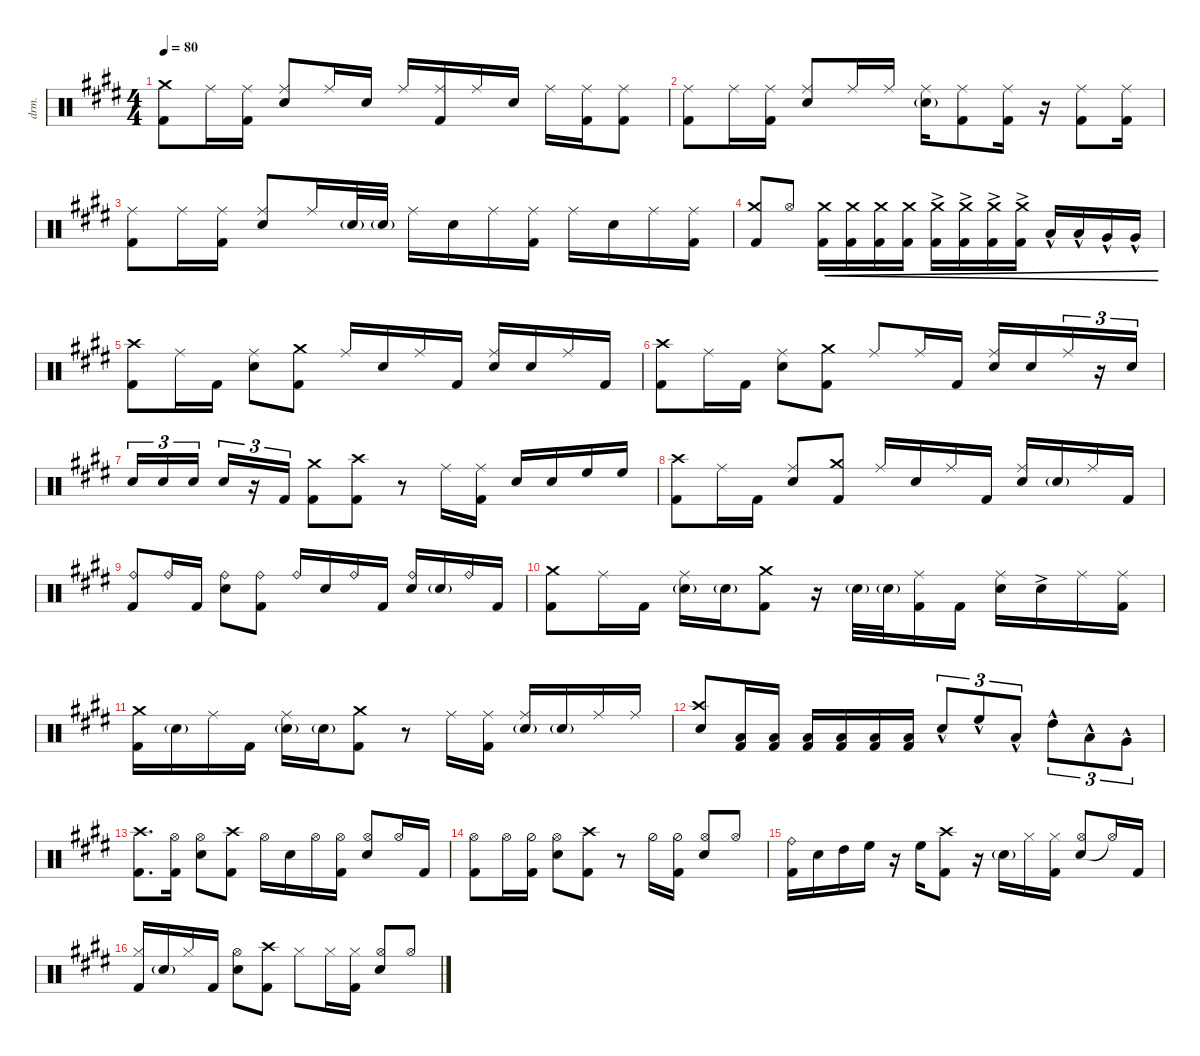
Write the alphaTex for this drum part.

\defaultSystemsLayout 4
\hideDynamics
\bracketExtendMode groupsimilarinstruments
\otherSystemsTrackNameOrientation horizontal
\chordDiagramsInScore
\track ("Drumkit" "drm.") {instrument percussion}
\staff {score}
\articulation defaults
\ts (4 4)
\tempo 80
\clef neutral
\ks e
("Crash medium (hit)"{acc forcenatural} "Kick (hit) 2"{acc forcenatural}).8{dy mf} "Ride (middle)"{acc forcenatural}.16 ("Ride (middle)"{acc forcenatural} "Kick (hit) 2"{acc forcenatural}).16 ("Ride (middle)"{acc forcenatural} "Snare (hit) 2"{acc forcenatural}).8{beam Up} "Ride (middle)"{acc forcenatural}.16{beam Up} "Snare (hit) 2"{acc forcenatural}.16{beam Up} "Ride (middle)"{acc forcenatural}.16{beam Up} ("Ride (middle)"{acc forcenatural} "Kick (hit) 2"{acc forcenatural}).16{beam Up} "Ride (middle)"{acc forcenatural}.16{beam Up} "Snare (hit) 2"{acc forcenatural}.16{beam Up} "Ride (middle)"{acc forcenatural}.16 ("Ride (middle)"{acc forcenatural} "Kick (hit) 2"{acc forcenatural}).16 ("Kick (hit) 2"{acc forcenatural} "Ride (middle)"{acc forcenatural}).8 |
("Ride (middle)"{acc forcenatural} "Kick (hit) 2"{acc forcenatural}).8 "Ride (middle)"{acc forcenatural}.16 ("Ride (middle)"{acc forcenatural} "Kick (hit) 2"{acc forcenatural}).16 ("Ride (middle)"{acc forcenatural} "Snare (hit) 2"{acc forcenatural}).8{beam Up} "Ride (middle)"{acc forcenatural}.16{beam Up} "Ride (middle)"{acc forcenatural}.16{beam Up} ("Ride (middle)"{acc forcenatural} "Snare (hit) 2"{g acc forcenatural}).16 ("Ride (middle)"{acc forcenatural} "Kick (hit) 2"{acc forcenatural}).8 ("Ride (middle)"{acc forcenatural} "Kick (hit) 2"{acc forcenatural}).16 r.16 ("Ride (middle)"{acc forcenatural} "Kick (hit) 2"{acc forcenatural}).8 ("Ride (middle)"{acc forcenatural} "Kick (hit) 2"{acc forcenatural}).16 |
\scale
1.05899 ("Ride (middle)"{acc forcenatural} "Kick (hit) 2"{acc forcenatural}).8 "Ride (middle)"{acc forcenatural}.16 ("Ride (middle)"{acc forcenatural} "Kick (hit) 2"{acc forcenatural}).16 ("Ride (middle)"{acc forcenatural} "Snare (hit) 2"{acc forcenatural}).8{beam Up} "Ride (middle)"{acc forcenatural}.16{beam Up} "Snare (hit) 2"{g acc forcenatural}.32{beam Up} "Snare (hit) 2"{g acc forcenatural}.32{beam Up} "Ride (middle)"{acc forcenatural}.16 "Snare (hit) 2"{acc forcenatural}.16 "Ride (middle)"{acc forcenatural}.16 ("Ride (middle)"{acc forcenatural} "Kick (hit) 2"{acc forcenatural}).16 "Ride (middle)"{acc forcenatural}.16 "Snare (hit) 2"{acc forcenatural}.16 "Ride (middle)"{acc forcenatural}.16 ("Kick (hit) 2"{acc forcenatural} "Ride (middle)"{acc forcenatural}).16 |
\scale
0.941009 ("Crash medium (hit)"{acc forcenatural} "Kick (hit) 2"{acc forcenatural}).8{beam Up} "Hi-Hat (open)"{acc forcenatural}.8{beam Up} ("Crash medium (hit)"{acc forcenatural} "Kick (hit) 2"{acc forcenatural}).16{cre} ("Crash medium (hit)"{acc forcenatural} "Kick (hit) 2"{acc forcenatural}).16{cre} ("Crash medium (hit)"{acc forcenatural} "Kick (hit) 2"{acc forcenatural}).16{cre} ("Crash medium (hit)"{acc forcenatural} "Kick (hit) 2"{acc forcenatural}).16{cre} ("Crash medium (hit)"{ac acc forcenatural} "Kick (hit) 2"{ac acc forcenatural}).16{cre} ("Crash medium (hit)"{ac acc forcenatural} "Kick (hit) 2"{ac acc forcenatural}).16{cre} ("Crash medium (hit)"{ac acc forcenatural} "Kick (hit) 2"{ac acc forcenatural}).16{cre} ("Crash medium (hit)"{ac acc forcenatural} "Kick (hit) 2"{ac acc forcenatural}).16{cre} "Low Tom (hit)"{hac acc forcenatural}.16{cre} "Low Tom (hit)"{hac acc forcenatural}.16{cre} "Very Low Tom (hit)"{hac acc forcenatural}.16{cre} "Very Low Tom (hit)"{hac acc forcenatural}.16{cre} |
("Crash high (hit)"{acc forcenatural} "Kick (hit) 2"{acc forcenatural}).8 "Ride (middle)"{acc forcenatural}.16 "Kick (hit) 2"{acc forcenatural}.16 ("Ride (middle)"{acc forcenatural} "Snare (hit) 2"{acc forcenatural}).8 ("Crash medium (hit)"{acc forcenatural} "Kick (hit) 2"{acc forcenatural}).8 "Ride (middle)"{acc forcenatural}.16{beam Up} "Snare (hit) 2"{acc forcenatural}.16{beam Up} "Ride (middle)"{acc forcenatural}.16{beam Up} "Kick (hit) 2"{acc forcenatural}.16{beam Up} ("Ride (middle)"{acc forcenatural} "Snare (hit) 2"{acc forcenatural}).16{beam Up} "Snare (hit) 2"{acc forcenatural}.16{beam Up} "Ride (middle)"{acc forcenatural}.16{beam Up} "Kick (hit) 2"{acc forcenatural}.16{beam Up} |
("Crash high (hit)"{acc forcenatural} "Kick (hit) 2"{acc forcenatural}).8 "Ride (middle)"{acc forcenatural}.16 "Kick (hit) 2"{acc forcenatural}.16 ("Ride (middle)"{acc forcenatural} "Snare (hit) 2"{acc forcenatural}).8 ("Crash medium (hit)"{acc forcenatural} "Kick (hit) 2"{acc forcenatural}).8 "Ride (middle)"{acc forcenatural}.8{beam Up} "Ride (middle)"{acc forcenatural}.16{beam Up} "Kick (hit) 2"{acc forcenatural}.16{beam Up} ("Ride (middle)"{acc forcenatural} "Snare (hit) 2"{acc forcenatural}).16{beam Up} "Snare (hit) 2"{acc forcenatural}.16{beam Up beam merge} "Ride (middle)"{acc forcenatural}.16{tu (3 2) beam Up} r.16{tu (3 2) beam Up} "Snare (hit) 2"{acc forcenatural}.16{tu (3 2) beam Up} |
\scale
1.05661 "Snare (hit) 2"{acc forcenatural}.16{tu (3 2) beam Up} "Snare (hit) 2"{acc forcenatural}.16{tu (3 2) beam Up} "Snare (hit) 2"{acc forcenatural}.16{tu (3 2) beam Up} "Snare (hit) 2"{acc forcenatural}.16{tu (3 2)} r.16{tu (3 2)} "Kick (hit) 2"{acc forcenatural}.16{tu (3 2)} ("Crash medium (hit)"{acc forcenatural} "Kick (hit) 2"{acc forcenatural}).8 ("Kick (hit) 2"{acc forcenatural} "Crash high (hit)"{acc forcenatural}).8 r.8 "Ride (middle)"{acc forcenatural}.16 ("Ride (middle)"{acc forcenatural} "Kick (hit) 2"{acc forcenatural}).16 "Snare (hit) 2"{acc forcenatural}.16{beam Up} "Snare (hit) 2"{acc forcenatural}.16{beam Up} "High Floor Tom (hit)"{acc forcenatural}.16{beam Up} "High Floor Tom (hit)"{acc forcenatural}.16{beam Up} |
\scale
0.943389 ("Crash high (hit)"{acc forcenatural} "Kick (hit) 2"{acc forcenatural}).8 "Ride (middle)"{acc forcenatural}.16 "Kick (hit) 2"{acc forcenatural}.16 ("Ride (middle)"{acc forcenatural} "Snare (hit) 2"{acc forcenatural}).8{beam Up} ("Crash medium (hit)"{acc forcenatural} "Kick (hit) 2"{acc forcenatural}).8{beam Up} "Ride (middle)"{acc forcenatural}.16{beam Up} "Snare (hit) 2"{acc forcenatural}.16{beam Up} "Ride (middle)"{acc forcenatural}.16{beam Up} "Kick (hit) 2"{acc forcenatural}.16{beam Up} ("Ride (middle)"{acc forcenatural} "Snare (hit) 2"{acc forcenatural}).16{beam Up} "Snare (hit) 2"{g acc forcenatural}.16{beam Up} "Ride (middle)"{acc forcenatural}.16{beam Up} "Kick (hit) 2"{acc forcenatural}.16{beam Up} |
\scale
1.01148 ("Ride (bell)"{acc forcenatural} "Kick (hit) 2"{acc forcenatural}).8{beam Up} "Ride (bell)"{acc forcenatural}.16{beam Up} "Kick (hit) 2"{acc forcenatural}.16{beam Up} ("Ride (bell)"{acc forcenatural} "Snare (hit) 2"{acc forcenatural}).8 ("Ride (bell)"{acc forcenatural} "Kick (hit) 2"{acc forcenatural}).8 "Ride (bell)"{acc forcenatural}.16{beam Up} "Snare (hit) 2"{acc forcenatural}.16{beam Up} "Ride (bell)"{acc forcenatural}.16{beam Up} "Kick (hit) 2"{acc forcenatural}.16{beam Up} ("Ride (bell)"{acc forcenatural} "Snare (hit) 2"{acc forcenatural}).16{beam Up} "Snare (hit) 2"{g acc forcenatural}.16{beam Up} "Ride (bell)"{acc forcenatural}.16{beam Up} "Kick (hit) 2"{acc forcenatural}.16{beam Up} |
\scale
0.988521 ("Crash medium (hit)"{acc forcenatural} "Kick (hit) 2"{acc forcenatural}).8 "Ride (middle)"{acc forcenatural}.16 "Kick (hit) 2"{acc forcenatural}.16 ("Ride (middle)"{acc forcenatural} "Snare (hit) 2"{g acc forcenatural}).16 "Snare (hit) 2"{g acc forcenatural}.16 ("Crash medium (hit)"{acc forcenatural} "Kick (hit) 2"{acc forcenatural}).8 r.16 "Snare (hit) 2"{g acc forcenatural}.32 "Snare (hit) 2"{g acc forcenatural}.32 ("Ride (middle)"{acc forcenatural} "Kick (hit) 2"{acc forcenatural}).16 "Kick (hit) 2"{acc forcenatural}.16 ("Snare (hit) 2"{acc forcenatural} "Ride (middle)"{acc forcenatural}).16 "Snare (hit) 2"{ac acc forcenatural}.16 "Ride (middle)"{acc forcenatural}.16 ("Ride (middle)"{acc forcenatural} "Kick (hit) 2"{acc forcenatural}).16 |
\scale
1.05279 ("Crash medium (hit)"{acc forcenatural} "Kick (hit) 2"{acc forcenatural}).16 "Snare (hit) 2"{g acc forcenatural}.16 "Ride (middle)"{acc forcenatural}.16 "Kick (hit) 2"{acc forcenatural}.16 ("Snare (hit) 2"{g acc forcenatural} "Ride (middle)"{acc forcenatural}).16 "Snare (hit) 2"{g acc forcenatural}.16 ("Kick (hit) 2"{acc forcenatural} "Crash medium (hit)"{acc forcenatural}).8 r.8 "Ride (middle)"{acc forcenatural}.16 ("Ride (middle)"{acc forcenatural} "Kick (hit) 2"{acc forcenatural}).16 ("Snare (hit) 2"{g acc forcenatural} "Ride (middle)"{acc forcenatural}).16{beam Up} "Snare (hit) 2"{g acc forcenatural}.16{beam Up} "Ride (middle)"{acc forcenatural}.16{beam Up} "Ride (middle)"{acc forcenatural}.16{beam Up} |
\scale
0.947206 ("Crash high (hit)"{acc forcenatural} "Snare (hit) 2"{acc forcenatural}).8{beam Up} ("Low Tom (hit)"{acc forcenatural} "Kick (hit) 2"{acc forcenatural}).16{beam Up} ("Kick (hit) 2"{acc forcenatural} "Low Tom (hit)"{acc forcenatural}).16{beam Up} ("Low Tom (hit)"{acc forcenatural} "Kick (hit) 2"{acc forcenatural}).16 ("Low Tom (hit)"{acc forcenatural} "Kick (hit) 2"{acc forcenatural}).16 ("Low Tom (hit)"{acc forcenatural} "Kick (hit) 2"{acc forcenatural}).16 ("Low Tom (hit)"{acc forcenatural} "Kick (hit) 2"{acc forcenatural}).16 "Snare (hit) 2"{hac acc forcenatural}.8{tu (3 2) beam Up} "High Floor Tom (hit)"{hac acc forcenatural}.8{tu (3 2) beam Up} "Low Tom (hit)"{hac acc forcenatural}.8{tu (3 2) beam Up} "High Tom (hit)"{hac acc forcenatural}.8{tu (3 2)} "Low Tom (hit)"{hac acc forcenatural}.8{tu (3 2)} "Very Low Tom (hit)"{hac acc forcenatural}.8{tu (3 2)} |
("Crash high (hit)"{acc forcenatural} "Kick (hit) 2"{acc forcenatural}).8{d} ("Kick (hit) 2"{acc forcenatural} "Hi-Hat (open)"{acc forcenatural}).16 ("Hi-Hat (open)"{acc forcenatural} "Snare (hit) 2"{acc forcenatural}).8 ("Crash high (hit)"{acc forcenatural} "Kick (hit) 2"{acc forcenatural}).8 "Hi-Hat (open)"{acc forcenatural}.16 "Snare (hit) 2"{acc forcenatural}.16 "Hi-Hat (open)"{acc forcenatural}.16 ("Hi-Hat (open)"{acc forcenatural} "Kick (hit) 2"{acc forcenatural}).16 ("Hi-Hat (open)"{acc forcenatural} "Snare (hit) 2"{acc forcenatural}).8{beam Up} "Hi-Hat (open)"{acc forcenatural}.16{beam Up} "Kick (hit) 2"{acc forcenatural}.16{beam Up} |
("Hi-Hat (open)"{acc forcenatural} "Kick (hit) 2"{acc forcenatural}).8 "Hi-Hat (open)"{acc forcenatural}.16 ("Hi-Hat (half)"{acc forcenatural} "Kick (hit) 2"{acc forcenatural}).16 ("Hi-Hat (open)"{acc forcenatural} "Snare (hit) 2"{acc forcenatural}).8 ("Crash high (hit)"{acc forcenatural} "Kick (hit) 2"{acc forcenatural}).8 r.8 "Hi-Hat (half)"{acc forcenatural}.16 ("Hi-Hat (half)"{acc forcenatural} "Kick (hit) 2"{acc forcenatural}).16 ("Snare (hit) 2"{acc forcenatural} "Hi-Hat (open)"{acc forcenatural}).8{beam Up} "Hi-Hat (open)"{acc forcenatural}.8{beam Up} |
("Ride (bell)"{acc forcenatural} "Kick (hit) 2"{acc forcenatural}).16 "Snare (hit) 2"{acc forcenatural}.16 "High Tom (hit)"{acc forcenatural}.16 "High Floor Tom (hit)"{acc forcenatural}.16 r.16 "High Floor Tom (hit)"{acc forcenatural}.16 ("Crash high (hit)"{acc forcenatural} "Kick (hit) 2"{acc forcenatural}).8 r.16 "Snare (hit) 2"{g acc forcenatural}.16 "Hi-Hat (closed)"{acc forcenatural}.16 ("Hi-Hat (closed)"{acc forcenatural} "Kick (hit) 2"{acc forcenatural}).16 ("Snare (hit) 2"{acc forcenatural} "Hi-Hat (open)"{acc forcenatural}).8{beam Up} "Hi-Hat (open)"{t acc forcenatural}.16{beam Up} "Kick (hit) 2"{acc forcenatural}.16{beam Up} |
("Kick (hit) 2"{acc forcenatural} "Hi-Hat (closed)"{acc forcenatural}).16{beam Up} "Snare (hit) 2"{g acc forcenatural}.16{beam Up} "Hi-Hat (closed)"{acc forcenatural}.16{beam Up} "Kick (hit) 2"{acc forcenatural}.16{beam Up} ("Hi-Hat (open)"{acc forcenatural} "Snare (hit) 2"{acc forcenatural}).8 ("Kick (hit) 2"{acc forcenatural} "Crash high (hit)"{acc forcenatural}).8 "Hi-Hat (closed)"{acc forcenatural}.8 "Hi-Hat (closed)"{acc forcenatural}.16 ("Hi-Hat (closed)"{acc forcenatural} "Kick (hit) 2"{acc forcenatural}).16 ("Hi-Hat (open)"{acc forcenatural} "Snare (hit) 2"{acc forcenatural}).8{beam Up} "Hi-Hat (open)"{acc forcenatural}.8{beam Up}
